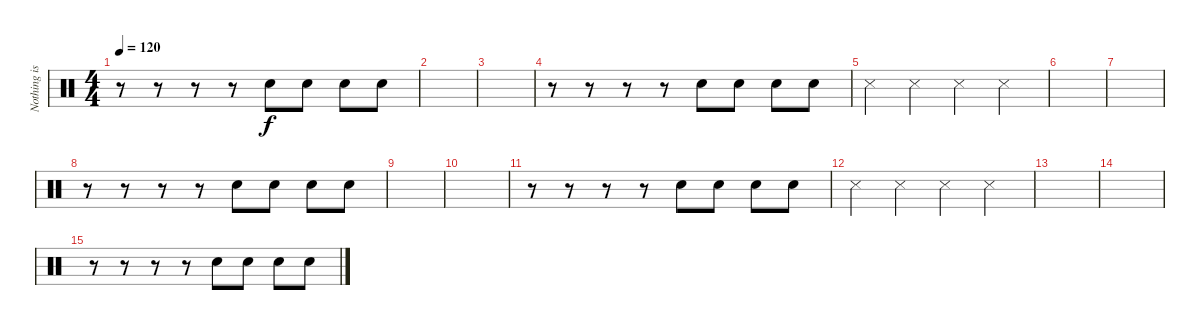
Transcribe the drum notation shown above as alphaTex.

\track ("Nothing is drummer" "Nothing is") {instrument percussion}
\staff {score}
\articulation defaults
\ts (4 4)
\tempo 120
\clef neutral
\ks c
r.8{dy f} r.8 r.8 r.8 "Electric Snare (hit)".8 "Electric Snare (hit)".8 "Electric Snare (hit)".8 "Electric Snare (hit)".8 |
|
|
r.8 r.8 r.8 r.8 "Electric Snare (hit)".8 "Electric Snare (hit)".8 "Electric Snare (hit)".8 "Electric Snare (hit)".8 |
"Metronome (hit)".4 "Metronome (hit)".4 "Metronome (hit)".4 "Metronome (hit)".4 |
|
|
r.8 r.8 r.8 r.8 "Electric Snare (hit)".8 "Electric Snare (hit)".8 "Electric Snare (hit)".8 "Electric Snare (hit)".8 |
|
|
r.8 r.8 r.8 r.8 "Electric Snare (hit)".8 "Electric Snare (hit)".8 "Electric Snare (hit)".8 "Electric Snare (hit)".8 |
"Metronome (hit)".4 "Metronome (hit)".4 "Metronome (hit)".4 "Metronome (hit)".4 |
|
|
r.8 r.8 r.8 r.8 "Electric Snare (hit)".8 "Electric Snare (hit)".8 "Electric Snare (hit)".8 "Electric Snare (hit)".8
